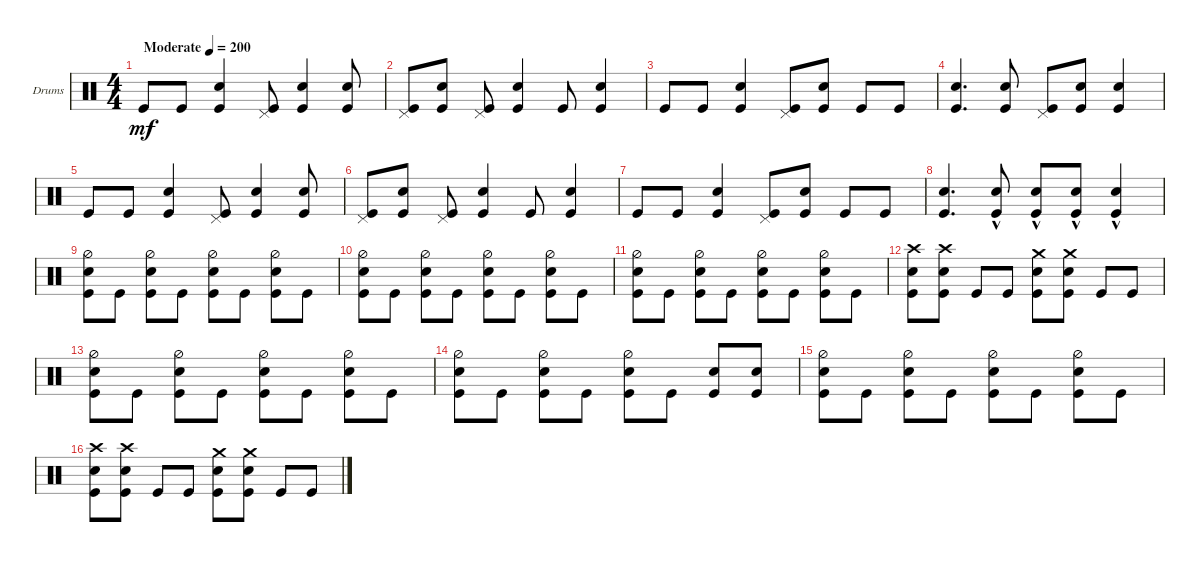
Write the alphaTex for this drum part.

\bracketExtendMode groupsimilarinstruments
\firstSystemTrackNameOrientation horizontal
\otherSystemsTrackNameOrientation horizontal
\track ("Drumkit" "Drums") {instrument percussion}
\staff {score}
\articulation defaults
\ts (4 4)
\beaming (8 2 2 2 2)
\tempo (200 "Moderate")
\clef neutral
\ks c "Kick (hit)".8{dy mf} "Kick (hit)".8
("Kick (hit)" "Snare (hit) 2").4 ("Pedal Hi-Hat (hit)" "Kick (hit)").8 ("Kick (hit)" "Snare (hit) 2").4 ("Kick (hit)" "Snare (hit) 2").8 |
("Pedal Hi-Hat (hit)" "Kick (hit)").8 ("Kick (hit)" "Snare (hit) 2").8 ("Pedal Hi-Hat (hit)" "Kick (hit)").8 ("Kick (hit)" "Snare (hit) 2").4 "Kick (hit)".8 ("Kick (hit)" "Snare (hit) 2").4 |
"Kick (hit)".8 "Kick (hit)".8 ("Kick (hit)" "Snare (hit) 2").4 ("Pedal Hi-Hat (hit)" "Kick (hit)").8 ("Kick (hit)" "Snare (hit) 2").8 "Kick (hit)".8 "Kick (hit)".8 |
("Kick (hit)" "Snare (hit) 2").4{d} ("Kick (hit)" "Snare (hit) 2").8 ("Pedal Hi-Hat (hit)" "Kick (hit)").8 ("Kick (hit)" "Snare (hit) 2").8 ("Kick (hit)" "Snare (hit) 2").4 |
"Kick (hit)".8 "Kick (hit)".8 ("Kick (hit)" "Snare (hit) 2").4 ("Pedal Hi-Hat (hit)" "Kick (hit)").8 ("Kick (hit)" "Snare (hit) 2").4 ("Kick (hit)" "Snare (hit) 2").8 |
("Pedal Hi-Hat (hit)" "Kick (hit)").8 ("Kick (hit)" "Snare (hit) 2").8 ("Pedal Hi-Hat (hit)" "Kick (hit)").8 ("Kick (hit)" "Snare (hit) 2").4 "Kick (hit)".8 ("Kick (hit)" "Snare (hit) 2").4 |
"Kick (hit)".8 "Kick (hit)".8 ("Kick (hit)" "Snare (hit) 2").4 ("Pedal Hi-Hat (hit)" "Kick (hit)").8 ("Kick (hit)" "Snare (hit) 2").8 "Kick (hit)".8 "Kick (hit)".8 |
("Kick (hit)" "Snare (hit) 2").4{d} ("Kick (hit)"{hac} "Snare (hit) 2"{hac}).8 ("Kick (hit)"{hac} "Snare (hit) 2"{hac}).8 ("Kick (hit)"{hac} "Snare (hit) 2"{hac}).8 ("Kick (hit)"{hac} "Snare (hit) 2"{hac}).4 |
("Kick (hit)" "Snare (hit) 2" "Hi-Hat (half)").8 "Kick (hit)".8 ("Kick (hit)" "Snare (hit) 2" "Hi-Hat (half)").8 "Kick (hit)".8 ("Kick (hit)" "Snare (hit) 2" "Hi-Hat (half)").8 "Kick (hit)".8 ("Kick (hit)" "Snare (hit) 2" "Hi-Hat (half)").8 "Kick (hit)".8 |
("Kick (hit)" "Snare (hit) 2" "Hi-Hat (half)").8 "Kick (hit)".8 ("Kick (hit)" "Snare (hit) 2" "Hi-Hat (half)").8 "Kick (hit)".8 ("Kick (hit)" "Snare (hit) 2" "Hi-Hat (half)").8 "Kick (hit)".8 ("Kick (hit)" "Snare (hit) 2" "Hi-Hat (half)").8 "Kick (hit)".8 |
("Kick (hit)" "Snare (hit) 2" "Hi-Hat (half)").8 "Kick (hit)".8 ("Kick (hit)" "Snare (hit) 2" "Hi-Hat (half)").8 "Kick (hit)".8 ("Kick (hit)" "Snare (hit) 2" "Hi-Hat (half)").8 "Kick (hit)".8 ("Kick (hit)" "Snare (hit) 2" "Hi-Hat (half)").8 "Kick (hit)".8 |
("Kick (hit)" "Snare (hit) 2" "Crash high (hit)").8 ("Kick (hit)" "Snare (hit) 2" "Crash high (hit)").8 "Kick (hit)".8 "Kick (hit)".8 ("Kick (hit)" "Snare (hit) 2" "Crash medium (hit)").8 ("Kick (hit)" "Snare (hit) 2" "Crash medium (hit)").8 "Kick (hit)".8 "Kick (hit)".8 |
("Kick (hit)" "Snare (hit) 2" "Hi-Hat (half)").8 "Kick (hit)".8 ("Kick (hit)" "Snare (hit) 2" "Hi-Hat (half)").8 "Kick (hit)".8 ("Kick (hit)" "Snare (hit) 2" "Hi-Hat (half)").8 "Kick (hit)".8 ("Kick (hit)" "Snare (hit) 2" "Hi-Hat (half)").8 "Kick (hit)".8 |
("Kick (hit)" "Snare (hit) 2" "Hi-Hat (half)").8 "Kick (hit)".8 ("Kick (hit)" "Snare (hit) 2" "Hi-Hat (half)").8 "Kick (hit)".8 ("Kick (hit)" "Snare (hit) 2" "Hi-Hat (half)").8 "Kick (hit)".8 ("Kick (hit)" "Snare (hit) 2").8 ("Kick (hit)" "Snare (hit) 2").8 |
("Kick (hit)" "Snare (hit) 2" "Hi-Hat (half)").8 "Kick (hit)".8 ("Kick (hit)" "Snare (hit) 2" "Hi-Hat (half)").8 "Kick (hit)".8 ("Kick (hit)" "Snare (hit) 2" "Hi-Hat (half)").8 "Kick (hit)".8 ("Kick (hit)" "Snare (hit) 2" "Hi-Hat (half)").8 "Kick (hit)".8 |
("Kick (hit)" "Snare (hit) 2" "Crash high (hit)").8 ("Kick (hit)" "Snare (hit) 2" "Crash high (hit)").8 "Kick (hit)".8 "Kick (hit)".8 ("Kick (hit)" "Snare (hit) 2" "Crash medium (hit)").8 ("Kick (hit)" "Snare (hit) 2" "Crash medium (hit)").8 "Kick (hit)".8 "Kick (hit)".8
